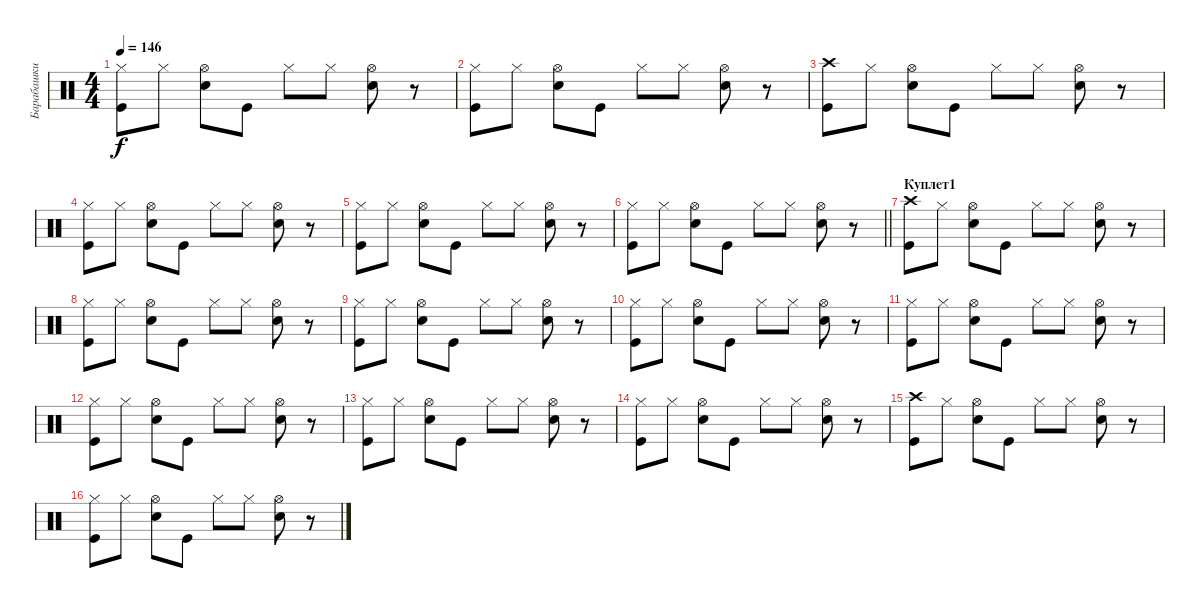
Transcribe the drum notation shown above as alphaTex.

\track ("Барабашки" "Барабашки") {instrument percussion}
\staff {score}
\articulation defaults
\ts (4 4)
\tempo 146
\clef neutral
\ks c
("Hi-Hat (closed)" "Kick (hit)").8{dy f} "Hi-Hat (closed)".8 ("Hi-Hat (open)" "Snare (hit) 2").8 "Kick (hit)".8 "Hi-Hat (closed)".8 "Hi-Hat (closed)".8 ("Hi-Hat (open)" "Snare (hit) 2").8 r.8 |
("Hi-Hat (closed)" "Kick (hit)").8 "Hi-Hat (closed)".8 ("Hi-Hat (open)" "Snare (hit) 2").8 "Kick (hit)".8 "Hi-Hat (closed)".8 "Hi-Hat (closed)".8 ("Hi-Hat (open)" "Snare (hit) 2").8 r.8 |
("Crash high (hit)" "Kick (hit)").8 "Hi-Hat (closed)".8 ("Hi-Hat (open)" "Snare (hit) 2").8 "Kick (hit)".8 "Hi-Hat (closed)".8 "Hi-Hat (closed)".8 ("Hi-Hat (open)" "Snare (hit) 2").8 r.8 |
("Hi-Hat (closed)" "Kick (hit)").8 "Hi-Hat (closed)".8 ("Hi-Hat (open)" "Snare (hit) 2").8 "Kick (hit)".8 "Hi-Hat (closed)".8 "Hi-Hat (closed)".8 ("Hi-Hat (open)" "Snare (hit) 2").8 r.8 |
("Hi-Hat (closed)" "Kick (hit)").8 "Hi-Hat (closed)".8 ("Hi-Hat (open)" "Snare (hit) 2").8 "Kick (hit)".8 "Hi-Hat (closed)".8 "Hi-Hat (closed)".8 ("Hi-Hat (open)" "Snare (hit) 2").8 r.8 |
\barLineRight lightlight
("Hi-Hat (closed)" "Kick (hit)").8 "Hi-Hat (closed)".8 ("Hi-Hat (open)" "Snare (hit) 2").8 "Kick (hit)".8 "Hi-Hat (closed)".8 "Hi-Hat (closed)".8 ("Hi-Hat (open)" "Snare (hit) 2").8 r.8 |
\section ("" "Куплет1")
("Crash high (hit)" "Kick (hit)").8 "Hi-Hat (closed)".8 ("Hi-Hat (open)" "Snare (hit) 2").8 "Kick (hit)".8 "Hi-Hat (closed)".8 "Hi-Hat (closed)".8 ("Hi-Hat (open)" "Snare (hit) 2").8 r.8 |
("Hi-Hat (closed)" "Kick (hit)").8 "Hi-Hat (closed)".8 ("Hi-Hat (open)" "Snare (hit) 2").8 "Kick (hit)".8 "Hi-Hat (closed)".8 "Hi-Hat (closed)".8 ("Hi-Hat (open)" "Snare (hit) 2").8 r.8 |
("Hi-Hat (closed)" "Kick (hit)").8 "Hi-Hat (closed)".8 ("Hi-Hat (open)" "Snare (hit) 2").8 "Kick (hit)".8 "Hi-Hat (closed)".8 "Hi-Hat (closed)".8 ("Hi-Hat (open)" "Snare (hit) 2").8 r.8 |
("Hi-Hat (closed)" "Kick (hit)").8 "Hi-Hat (closed)".8 ("Hi-Hat (open)" "Snare (hit) 2").8 "Kick (hit)".8 "Hi-Hat (closed)".8 "Hi-Hat (closed)".8 ("Hi-Hat (open)" "Snare (hit) 2").8 r.8 |
("Hi-Hat (closed)" "Kick (hit)").8 "Hi-Hat (closed)".8 ("Hi-Hat (open)" "Snare (hit) 2").8 "Kick (hit)".8 "Hi-Hat (closed)".8 "Hi-Hat (closed)".8 ("Hi-Hat (open)" "Snare (hit) 2").8 r.8 |
("Hi-Hat (closed)" "Kick (hit)").8 "Hi-Hat (closed)".8 ("Hi-Hat (open)" "Snare (hit) 2").8 "Kick (hit)".8 "Hi-Hat (closed)".8 "Hi-Hat (closed)".8 ("Hi-Hat (open)" "Snare (hit) 2").8 r.8 |
("Hi-Hat (closed)" "Kick (hit)").8 "Hi-Hat (closed)".8 ("Hi-Hat (open)" "Snare (hit) 2").8 "Kick (hit)".8 "Hi-Hat (closed)".8 "Hi-Hat (closed)".8 ("Hi-Hat (open)" "Snare (hit) 2").8 r.8 |
("Hi-Hat (closed)" "Kick (hit)").8 "Hi-Hat (closed)".8 ("Hi-Hat (open)" "Snare (hit) 2").8 "Kick (hit)".8 "Hi-Hat (closed)".8 "Hi-Hat (closed)".8 ("Hi-Hat (open)" "Snare (hit) 2").8 r.8 |
("Crash high (hit)" "Kick (hit)").8 "Hi-Hat (closed)".8 ("Hi-Hat (open)" "Snare (hit) 2").8 "Kick (hit)".8 "Hi-Hat (closed)".8 "Hi-Hat (closed)".8 ("Hi-Hat (open)" "Snare (hit) 2").8 r.8 |
("Hi-Hat (closed)" "Kick (hit)").8 "Hi-Hat (closed)".8 ("Hi-Hat (open)" "Snare (hit) 2").8 "Kick (hit)".8 "Hi-Hat (closed)".8 "Hi-Hat (closed)".8 ("Hi-Hat (open)" "Snare (hit) 2").8 r.8
